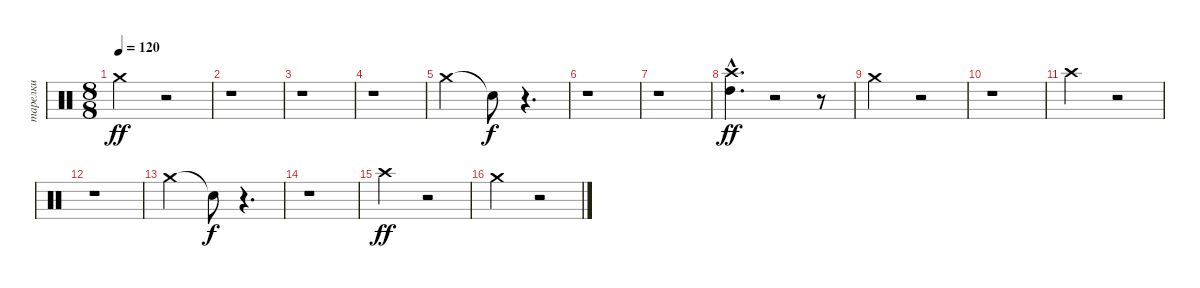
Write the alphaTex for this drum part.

\track ("тарелки" "тарелки") {instrument percussion}
\staff {score}
\articulation defaults
\ts (8 8)
\tempo 120
\clef neutral
\ks c "Crash medium (hit)".2{dy ff}
r.2 |
r.1 |
r.1 |
r.1 |
"Crash medium (hit)".2 "Snare (hit)"{t}.8{dy f} r.4{d} |
r.1 |
r.1 |
("Crash high (hit)"{hac} "High Tom (hit)"{hac}).4{d dy ff} r.2 r.8 |
"Crash medium (hit)".2 r.2 |
r.1 |
"Crash high (hit)".2 r.2 |
r.1 |
"Crash medium (hit)".2 "Snare (hit)"{t}.8{dy f} r.4{d} |
r.1 |
"Crash high (hit)".2{dy ff} r.2 |
"Crash medium (hit)".2 r.2
